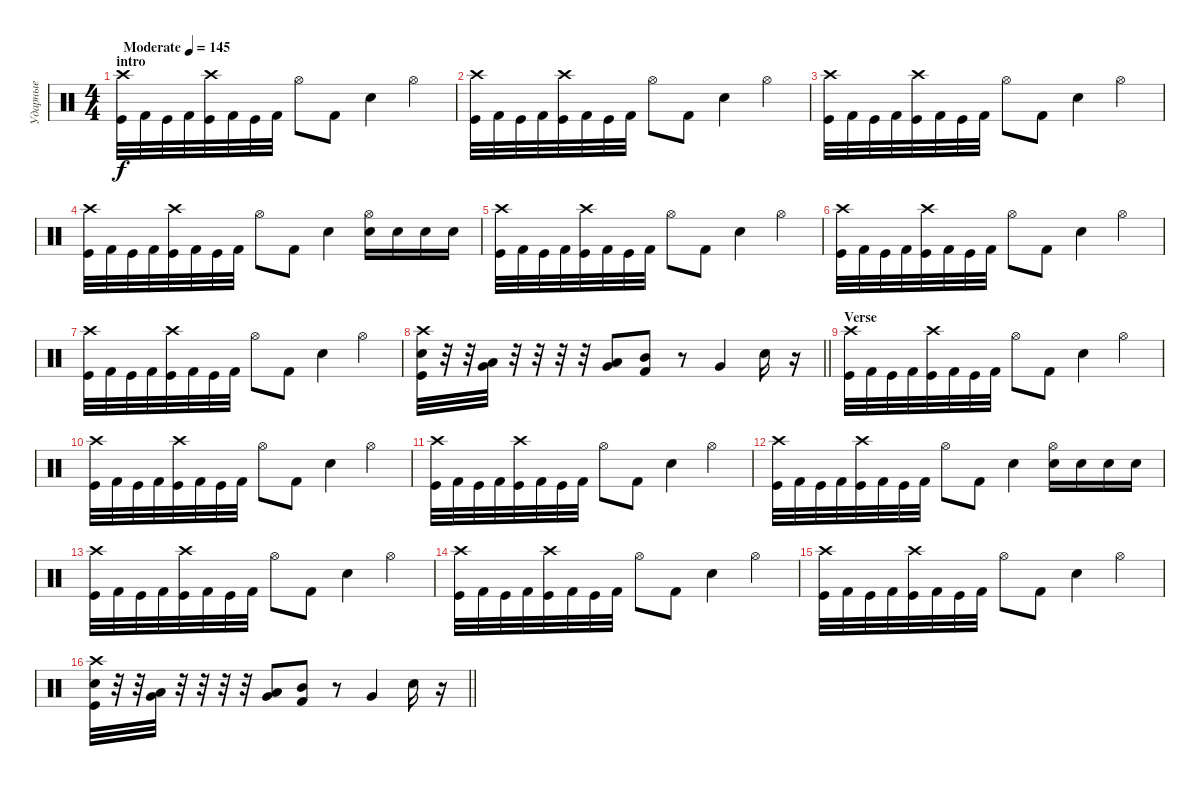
\track ("Ударные" "Ударные") {instrument percussion}
\staff {score}
\articulation defaults
\ts (4 4)
\section ("" "intro")
\tempo (145 "Moderate")
\clef neutral
\ks c
("Crash high (hit)" "Kick (hit)").32{dy f} "Kick (hit) 2".32 "Kick (hit)".32 "Kick (hit) 2".32 ("Crash high (hit)" "Kick (hit)").32 "Kick (hit) 2".32 "Kick (hit)".32 "Kick (hit) 2".32 "Hi-Hat (open)".8 "Kick (hit) 2".8 "Snare (hit) 2".4 "Hi-Hat (open)".4 |
("Crash high (hit)" "Kick (hit)").32 "Kick (hit) 2".32 "Kick (hit)".32 "Kick (hit) 2".32 ("Crash high (hit)" "Kick (hit)").32 "Kick (hit) 2".32 "Kick (hit)".32 "Kick (hit) 2".32 "Hi-Hat (open)".8 "Kick (hit) 2".8 "Snare (hit) 2".4 "Hi-Hat (open)".4 |
("Crash high (hit)" "Kick (hit)").32 "Kick (hit) 2".32 "Kick (hit)".32 "Kick (hit) 2".32 ("Crash high (hit)" "Kick (hit)").32 "Kick (hit) 2".32 "Kick (hit)".32 "Kick (hit) 2".32 "Hi-Hat (open)".8 "Kick (hit) 2".8 "Snare (hit) 2".4 "Hi-Hat (open)".4 |
("Crash high (hit)" "Kick (hit)").32 "Kick (hit) 2".32 "Kick (hit)".32 "Kick (hit) 2".32 ("Crash high (hit)" "Kick (hit)").32 "Kick (hit) 2".32 "Kick (hit)".32 "Kick (hit) 2".32 "Hi-Hat (open)".8 "Kick (hit) 2".8 "Snare (hit) 2".4 ("Hi-Hat (open)" "Snare (hit) 2").16 "Snare (hit) 2".16 "Snare (hit) 2".16 "Snare (hit) 2".16 |
("Crash high (hit)" "Kick (hit)").32 "Kick (hit) 2".32 "Kick (hit)".32 "Kick (hit) 2".32 ("Crash high (hit)" "Kick (hit)").32 "Kick (hit) 2".32 "Kick (hit)".32 "Kick (hit) 2".32 "Hi-Hat (open)".8 "Kick (hit) 2".8 "Snare (hit) 2".4 "Hi-Hat (open)".4 |
("Crash high (hit)" "Kick (hit)").32 "Kick (hit) 2".32 "Kick (hit)".32 "Kick (hit) 2".32 ("Crash high (hit)" "Kick (hit)").32 "Kick (hit) 2".32 "Kick (hit)".32 "Kick (hit) 2".32 "Hi-Hat (open)".8 "Kick (hit) 2".8 "Snare (hit) 2".4 "Hi-Hat (open)".4 |
("Crash high (hit)" "Kick (hit)").32 "Kick (hit) 2".32 "Kick (hit)".32 "Kick (hit) 2".32 ("Crash high (hit)" "Kick (hit)").32 "Kick (hit) 2".32 "Kick (hit)".32 "Kick (hit) 2".32 "Hi-Hat (open)".8 "Kick (hit) 2".8 "Snare (hit) 2".4 "Hi-Hat (open)".4 |
\barLineRight lightlight
("Crash high (hit)" "Snare (hit) 2" "Kick (hit)").32 r.32 r.32 ("Low Tom (hit)" "Very Low Tom (hit)").32 r.32 r.32 r.32 r.32 ("Low Tom (hit)" "Very Low Tom (hit)").8 ("Mid Tom (hit)" "Kick (hit) 2").8 r.8 "Very Low Tom (hit)".4 "Snare (hit) 2".16 r.16 |
\section ("" "Verse")
("Crash high (hit)" "Kick (hit)").32 "Kick (hit) 2".32 "Kick (hit)".32 "Kick (hit) 2".32 ("Crash high (hit)" "Kick (hit)").32 "Kick (hit) 2".32 "Kick (hit)".32 "Kick (hit) 2".32 "Hi-Hat (open)".8 "Kick (hit) 2".8 "Snare (hit) 2".4 "Hi-Hat (open)".4 |
("Crash high (hit)" "Kick (hit)").32 "Kick (hit) 2".32 "Kick (hit)".32 "Kick (hit) 2".32 ("Crash high (hit)" "Kick (hit)").32 "Kick (hit) 2".32 "Kick (hit)".32 "Kick (hit) 2".32 "Hi-Hat (open)".8 "Kick (hit) 2".8 "Snare (hit) 2".4 "Hi-Hat (open)".4 |
("Crash high (hit)" "Kick (hit)").32 "Kick (hit) 2".32 "Kick (hit)".32 "Kick (hit) 2".32 ("Crash high (hit)" "Kick (hit)").32 "Kick (hit) 2".32 "Kick (hit)".32 "Kick (hit) 2".32 "Hi-Hat (open)".8 "Kick (hit) 2".8 "Snare (hit) 2".4 "Hi-Hat (open)".4 |
("Crash high (hit)" "Kick (hit)").32 "Kick (hit) 2".32 "Kick (hit)".32 "Kick (hit) 2".32 ("Crash high (hit)" "Kick (hit)").32 "Kick (hit) 2".32 "Kick (hit)".32 "Kick (hit) 2".32 "Hi-Hat (open)".8 "Kick (hit) 2".8 "Snare (hit) 2".4 ("Hi-Hat (open)" "Snare (hit) 2").16 "Snare (hit) 2".16 "Snare (hit) 2".16 "Snare (hit) 2".16 |
("Crash high (hit)" "Kick (hit)").32 "Kick (hit) 2".32 "Kick (hit)".32 "Kick (hit) 2".32 ("Crash high (hit)" "Kick (hit)").32 "Kick (hit) 2".32 "Kick (hit)".32 "Kick (hit) 2".32 "Hi-Hat (open)".8 "Kick (hit) 2".8 "Snare (hit) 2".4 "Hi-Hat (open)".4 |
("Crash high (hit)" "Kick (hit)").32 "Kick (hit) 2".32 "Kick (hit)".32 "Kick (hit) 2".32 ("Crash high (hit)" "Kick (hit)").32 "Kick (hit) 2".32 "Kick (hit)".32 "Kick (hit) 2".32 "Hi-Hat (open)".8 "Kick (hit) 2".8 "Snare (hit) 2".4 "Hi-Hat (open)".4 |
("Crash high (hit)" "Kick (hit)").32 "Kick (hit) 2".32 "Kick (hit)".32 "Kick (hit) 2".32 ("Crash high (hit)" "Kick (hit)").32 "Kick (hit) 2".32 "Kick (hit)".32 "Kick (hit) 2".32 "Hi-Hat (open)".8 "Kick (hit) 2".8 "Snare (hit) 2".4 "Hi-Hat (open)".4 |
\barLineRight lightlight
("Crash high (hit)" "Snare (hit) 2" "Kick (hit)").32 r.32 r.32 ("Low Tom (hit)" "Very Low Tom (hit)").32 r.32 r.32 r.32 r.32 ("Low Tom (hit)" "Very Low Tom (hit)").8 ("Mid Tom (hit)" "Kick (hit) 2").8 r.8 "Very Low Tom (hit)".4 "Snare (hit) 2".16 r.16
